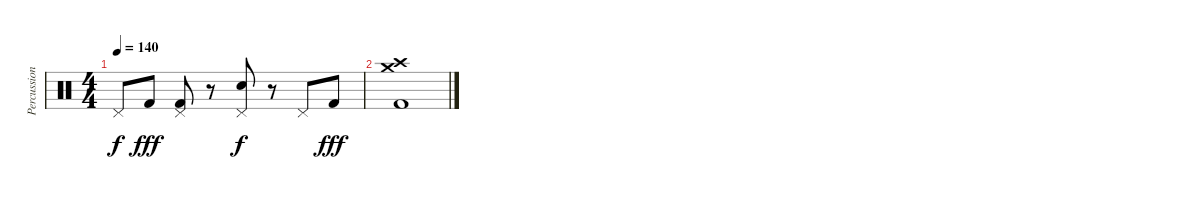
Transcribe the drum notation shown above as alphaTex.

\track ("Percussion" "Percussion") {instrument percussion}
\staff {score}
\articulation defaults
\ts (4 4)
\tempo 140
\clef neutral
\ks c "Pedal Hi-Hat (hit)".8{dy f} "Kick (hit) 2".8{dy fff}
("Pedal Hi-Hat (hit)" "Kick (hit) 2").8 r.8 ("Pedal Hi-Hat (hit)" "Electric Snare (hit)").8{dy f} r.8 "Pedal Hi-Hat (hit)".8 "Kick (hit) 2".8{dy fff} |
("Crash high (hit)" "Crash medium (hit)" "Kick (hit) 2").1
